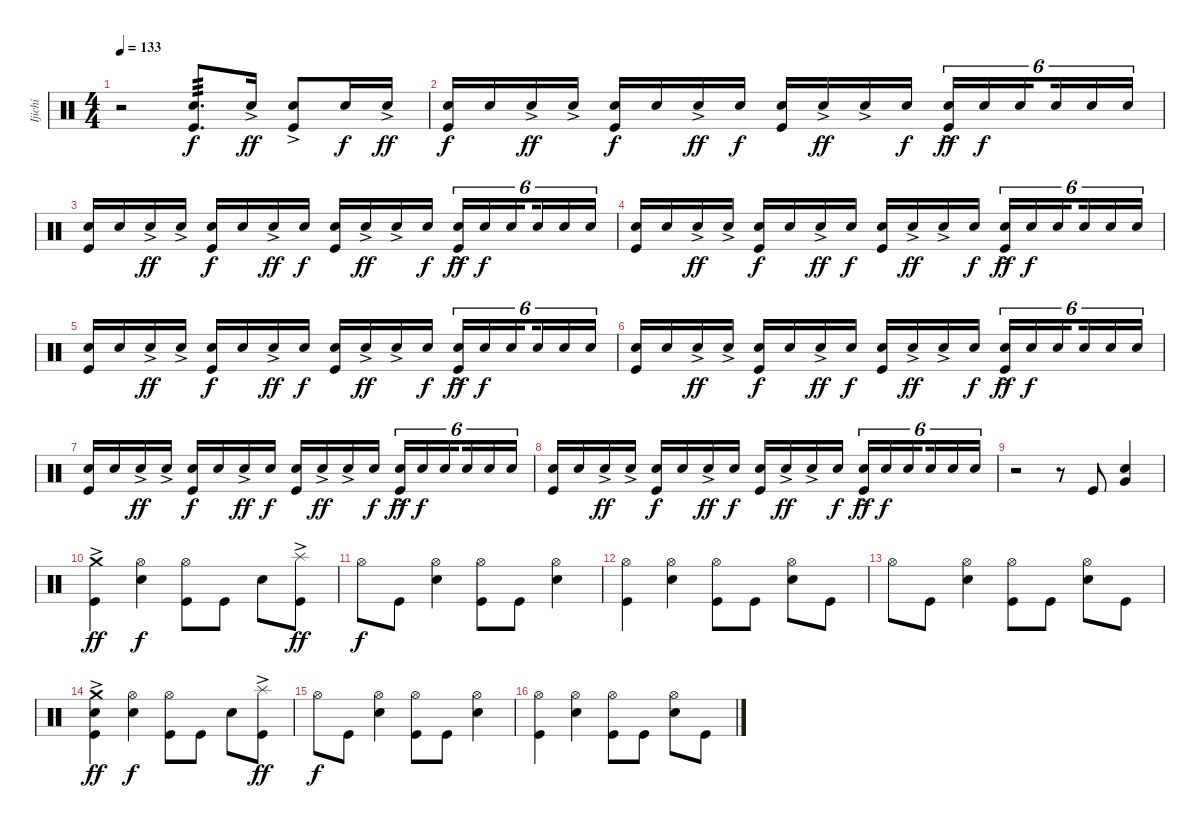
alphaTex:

\track ("Ijichi" "Ijichi") {instrument percussion}
\staff {score}
\articulation defaults
\ts (4 4)
\tempo 133
\clef neutral
\ks c
r.2{dy f} ("Electric Snare (hit)" "Kick (hit)").8{d tp 3} "Electric Snare (hit)"{ac}.16{dy ff} ("Electric Snare (hit)"{ac} "Kick (hit)").8 "Electric Snare (hit)".16{dy f} "Electric Snare (hit)"{ac}.16{dy ff} |
("Electric Snare (hit)" "Kick (hit)").16{dy f} "Electric Snare (hit)".16 "Electric Snare (hit)"{ac}.16{dy ff} "Electric Snare (hit)"{ac}.16 ("Electric Snare (hit)" "Kick (hit)").16{dy f} "Electric Snare (hit)".16 "Electric Snare (hit)"{ac}.16{dy ff} "Electric Snare (hit)".16{dy f} ("Electric Snare (hit)" "Kick (hit)").16 "Electric Snare (hit)"{ac}.16{dy ff} "Electric Snare (hit)"{ac}.16 "Electric Snare (hit)".16{dy f} ("Electric Snare (hit)"{ac} "Kick (hit)").16{tu (6 4) dy ff} "Electric Snare (hit)".16{tu (6 4) dy f} "Electric Snare (hit)".16{tu (6 4) beam splitsecondary} "Electric Snare (hit)".16{tu (6 4)} "Electric Snare (hit)".16{tu (6 4)} "Electric Snare (hit)".16{tu (6 4)} |
("Electric Snare (hit)" "Kick (hit)").16 "Electric Snare (hit)".16 "Electric Snare (hit)"{ac}.16{dy ff} "Electric Snare (hit)"{ac}.16 ("Electric Snare (hit)" "Kick (hit)").16{dy f} "Electric Snare (hit)".16 "Electric Snare (hit)"{ac}.16{dy ff} "Electric Snare (hit)".16{dy f} ("Electric Snare (hit)" "Kick (hit)").16 "Electric Snare (hit)"{ac}.16{dy ff} "Electric Snare (hit)"{ac}.16 "Electric Snare (hit)".16{dy f} ("Electric Snare (hit)"{ac} "Kick (hit)").16{tu (6 4) dy ff} "Electric Snare (hit)".16{tu (6 4) dy f} "Electric Snare (hit)".16{tu (6 4) beam splitsecondary} "Electric Snare (hit)".16{tu (6 4)} "Electric Snare (hit)".16{tu (6 4)} "Electric Snare (hit)".16{tu (6 4)} |
("Electric Snare (hit)" "Kick (hit)").16 "Electric Snare (hit)".16 "Electric Snare (hit)"{ac}.16{dy ff} "Electric Snare (hit)"{ac}.16 ("Electric Snare (hit)" "Kick (hit)").16{dy f} "Electric Snare (hit)".16 "Electric Snare (hit)"{ac}.16{dy ff} "Electric Snare (hit)".16{dy f} ("Electric Snare (hit)" "Kick (hit)").16 "Electric Snare (hit)"{ac}.16{dy ff} "Electric Snare (hit)"{ac}.16 "Electric Snare (hit)".16{dy f} ("Electric Snare (hit)"{ac} "Kick (hit)").16{tu (6 4) dy ff} "Electric Snare (hit)".16{tu (6 4) dy f} "Electric Snare (hit)".16{tu (6 4) beam splitsecondary} "Electric Snare (hit)".16{tu (6 4)} "Electric Snare (hit)".16{tu (6 4)} "Electric Snare (hit)".16{tu (6 4)} |
("Electric Snare (hit)" "Kick (hit)").16 "Electric Snare (hit)".16 "Electric Snare (hit)"{ac}.16{dy ff} "Electric Snare (hit)"{ac}.16 ("Electric Snare (hit)" "Kick (hit)").16{dy f} "Electric Snare (hit)".16 "Electric Snare (hit)"{ac}.16{dy ff} "Electric Snare (hit)".16{dy f} ("Electric Snare (hit)" "Kick (hit)").16 "Electric Snare (hit)"{ac}.16{dy ff} "Electric Snare (hit)"{ac}.16 "Electric Snare (hit)".16{dy f} ("Electric Snare (hit)"{ac} "Kick (hit)").16{tu (6 4) dy ff} "Electric Snare (hit)".16{tu (6 4) dy f} "Electric Snare (hit)".16{tu (6 4) beam splitsecondary} "Electric Snare (hit)".16{tu (6 4)} "Electric Snare (hit)".16{tu (6 4)} "Electric Snare (hit)".16{tu (6 4)} |
("Electric Snare (hit)" "Kick (hit)").16 "Electric Snare (hit)".16 "Electric Snare (hit)"{ac}.16{dy ff} "Electric Snare (hit)"{ac}.16 ("Electric Snare (hit)" "Kick (hit)").16{dy f} "Electric Snare (hit)".16 "Electric Snare (hit)"{ac}.16{dy ff} "Electric Snare (hit)".16{dy f} ("Electric Snare (hit)" "Kick (hit)").16 "Electric Snare (hit)"{ac}.16{dy ff} "Electric Snare (hit)"{ac}.16 "Electric Snare (hit)".16{dy f} ("Electric Snare (hit)"{ac} "Kick (hit)").16{tu (6 4) dy ff} "Electric Snare (hit)".16{tu (6 4) dy f} "Electric Snare (hit)".16{tu (6 4) beam splitsecondary} "Electric Snare (hit)".16{tu (6 4)} "Electric Snare (hit)".16{tu (6 4)} "Electric Snare (hit)".16{tu (6 4)} |
("Electric Snare (hit)" "Kick (hit)").16 "Electric Snare (hit)".16 "Electric Snare (hit)"{ac}.16{dy ff} "Electric Snare (hit)"{ac}.16 ("Electric Snare (hit)" "Kick (hit)").16{dy f} "Electric Snare (hit)".16 "Electric Snare (hit)"{ac}.16{dy ff} "Electric Snare (hit)".16{dy f} ("Electric Snare (hit)" "Kick (hit)").16 "Electric Snare (hit)"{ac}.16{dy ff} "Electric Snare (hit)"{ac}.16 "Electric Snare (hit)".16{dy f} ("Electric Snare (hit)"{ac} "Kick (hit)").16{tu (6 4) dy ff} "Electric Snare (hit)".16{tu (6 4) dy f} "Electric Snare (hit)".16{tu (6 4) beam splitsecondary} "Electric Snare (hit)".16{tu (6 4)} "Electric Snare (hit)".16{tu (6 4)} "Electric Snare (hit)".16{tu (6 4)} |
("Electric Snare (hit)" "Kick (hit)").16 "Electric Snare (hit)".16 "Electric Snare (hit)"{ac}.16{dy ff} "Electric Snare (hit)"{ac}.16 ("Electric Snare (hit)" "Kick (hit)").16{dy f} "Electric Snare (hit)".16 "Electric Snare (hit)"{ac}.16{dy ff} "Electric Snare (hit)".16{dy f} ("Electric Snare (hit)" "Kick (hit)").16 "Electric Snare (hit)"{ac}.16{dy ff} "Electric Snare (hit)"{ac}.16 "Electric Snare (hit)".16{dy f} ("Electric Snare (hit)"{ac} "Kick (hit)").16{tu (6 4) dy ff} "Electric Snare (hit)".16{tu (6 4) dy f} "Electric Snare (hit)".16{tu (6 4) beam splitsecondary} "Electric Snare (hit)".16{tu (6 4)} "Electric Snare (hit)".16{tu (6 4)} "Electric Snare (hit)".16{tu (6 4)} |
r.2 r.8 "Kick (hit)".8 ("Electric Snare (hit)" "Very Low Tom (hit)").4 |
("Crash medium (hit)"{ac} "Kick (hit)").4{dy ff} ("Hi-Hat (open)" "Electric Snare (hit)").4{dy f} ("Hi-Hat (open)" "Kick (hit)").8 "Kick (hit)".8 "Electric Snare (hit)".8 ("Splash (hit)"{ac} "Kick (hit)").8{dy ff} |
"Hi-Hat (open)".8{dy f} "Kick (hit)".8 ("Hi-Hat (open)" "Electric Snare (hit)").4 ("Hi-Hat (open)" "Kick (hit)").8 "Kick (hit)".8 ("Hi-Hat (open)" "Electric Snare (hit)").4 |
("Hi-Hat (open)" "Kick (hit)").4 ("Hi-Hat (open)" "Electric Snare (hit)").4 ("Hi-Hat (open)" "Kick (hit)").8 "Kick (hit)".8 ("Hi-Hat (open)" "Electric Snare (hit)").8 "Kick (hit)".8 |
"Hi-Hat (open)".8 "Kick (hit)".8 ("Hi-Hat (open)" "Electric Snare (hit)").4 ("Hi-Hat (open)" "Kick (hit)").8 "Kick (hit)".8 ("Hi-Hat (open)" "Electric Snare (hit)").8 "Kick (hit)".8 |
("Crash medium (hit)"{ac} "Electric Snare (hit)" "Kick (hit)").4{dy ff} ("Hi-Hat (open)" "Electric Snare (hit)").4{dy f} ("Hi-Hat (open)" "Kick (hit)").8 "Kick (hit)".8 "Electric Snare (hit)".8 ("Splash (hit)"{ac} "Kick (hit)").8{dy ff} |
"Hi-Hat (open)".8{dy f} "Kick (hit)".8 ("Hi-Hat (open)" "Electric Snare (hit)").4 ("Hi-Hat (open)" "Kick (hit)").8 "Kick (hit)".8 ("Hi-Hat (open)" "Electric Snare (hit)").4 |
("Hi-Hat (open)" "Kick (hit)").4 ("Hi-Hat (open)" "Electric Snare (hit)").4 ("Hi-Hat (open)" "Kick (hit)").8 "Kick (hit)".8 ("Hi-Hat (open)" "Electric Snare (hit)").8 "Kick (hit)".8
